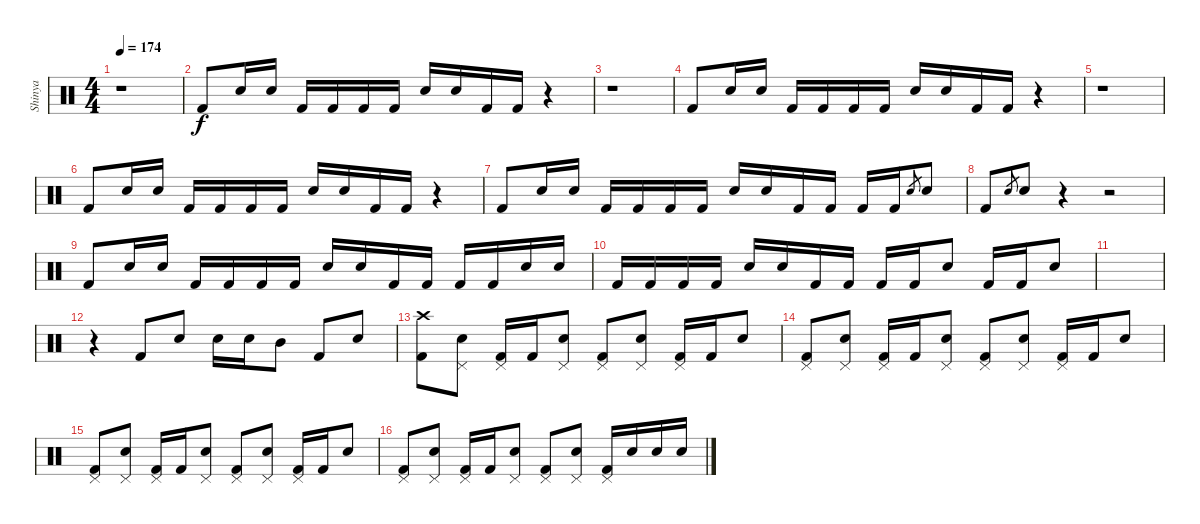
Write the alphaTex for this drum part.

\track ("Shinya" "Shinya") {instrument percussion}
\staff {score}
\articulation defaults
\ts (4 4)
\tempo 174
\clef neutral
\ks c
r.1{dy f} |
"Kick (hit) 2".8 "Electric Snare (hit)".16 "Electric Snare (hit)".16 "Kick (hit) 2".16 "Kick (hit) 2".16 "Kick (hit) 2".16 "Kick (hit) 2".16 "Electric Snare (hit)".16 "Electric Snare (hit)".16 "Kick (hit) 2".16 "Kick (hit) 2".16 r.4 |
r.1 |
"Kick (hit) 2".8 "Electric Snare (hit)".16 "Electric Snare (hit)".16 "Kick (hit) 2".16 "Kick (hit) 2".16 "Kick (hit) 2".16 "Kick (hit) 2".16 "Electric Snare (hit)".16 "Electric Snare (hit)".16 "Kick (hit) 2".16 "Kick (hit) 2".16 r.4 |
r.1 |
"Kick (hit) 2".8 "Electric Snare (hit)".16 "Electric Snare (hit)".16 "Kick (hit) 2".16 "Kick (hit) 2".16 "Kick (hit) 2".16 "Kick (hit) 2".16 "Electric Snare (hit)".16 "Electric Snare (hit)".16 "Kick (hit) 2".16 "Kick (hit) 2".16 r.4 |
"Kick (hit) 2".8 "Electric Snare (hit)".16 "Electric Snare (hit)".16 "Kick (hit) 2".16 "Kick (hit) 2".16 "Kick (hit) 2".16 "Kick (hit) 2".16 "Electric Snare (hit)".16 "Electric Snare (hit)".16 "Kick (hit) 2".16 "Kick (hit) 2".16 "Kick (hit) 2".16 "Kick (hit) 2".16 "Electric Snare (hit)".8{gr} "Electric Snare (hit)".8 |
"Kick (hit) 2".8 "Electric Snare (hit)".8{gr} "Electric Snare (hit)".8 r.4 r.2 |
"Kick (hit) 2".8 "Electric Snare (hit)".16 "Electric Snare (hit)".16 "Kick (hit) 2".16 "Kick (hit) 2".16 "Kick (hit) 2".16 "Kick (hit) 2".16 "Electric Snare (hit)".16 "Electric Snare (hit)".16 "Kick (hit) 2".16 "Kick (hit) 2".16 "Kick (hit) 2".16 "Kick (hit) 2".16 "Electric Snare (hit)".16 "Electric Snare (hit)".16 |
"Kick (hit) 2".16 "Kick (hit) 2".16 "Kick (hit) 2".16 "Kick (hit) 2".16 "Electric Snare (hit)".16 "Electric Snare (hit)".16 "Kick (hit) 2".16 "Kick (hit) 2".16 "Kick (hit) 2".16 "Kick (hit) 2".16 "Electric Snare (hit)".8 "Kick (hit) 2".16 "Kick (hit) 2".16 "Electric Snare (hit)".8 |
|
r.4 "Kick (hit) 2".8 "Electric Snare (hit)".8 "Electric Snare (hit)".16 "Electric Snare (hit)".16 "Mid Tom (hit)".8 "Kick (hit) 2".8 "Electric Snare (hit)".8 |
("Crash high (hit)" "Kick (hit) 2").8 ("Pedal Hi-Hat (hit)" "Electric Snare (hit)").8 ("Pedal Hi-Hat (hit)" "Kick (hit) 2").16 "Kick (hit) 2".16 ("Pedal Hi-Hat (hit)" "Electric Snare (hit)").8 ("Pedal Hi-Hat (hit)" "Kick (hit) 2").8 ("Pedal Hi-Hat (hit)" "Electric Snare (hit)").8 ("Pedal Hi-Hat (hit)" "Kick (hit) 2").16 "Kick (hit) 2".16 "Electric Snare (hit)".8 |
("Pedal Hi-Hat (hit)" "Kick (hit) 2").8 ("Pedal Hi-Hat (hit)" "Electric Snare (hit)").8 ("Pedal Hi-Hat (hit)" "Kick (hit) 2").16 "Kick (hit) 2".16 ("Pedal Hi-Hat (hit)" "Electric Snare (hit)").8 ("Pedal Hi-Hat (hit)" "Kick (hit) 2").8 ("Pedal Hi-Hat (hit)" "Electric Snare (hit)").8 ("Pedal Hi-Hat (hit)" "Kick (hit) 2").16 "Kick (hit) 2".16 "Electric Snare (hit)".8 |
("Pedal Hi-Hat (hit)" "Kick (hit) 2").8 ("Pedal Hi-Hat (hit)" "Electric Snare (hit)").8 ("Pedal Hi-Hat (hit)" "Kick (hit) 2").16 "Kick (hit) 2".16 ("Pedal Hi-Hat (hit)" "Electric Snare (hit)").8 ("Pedal Hi-Hat (hit)" "Kick (hit) 2").8 ("Pedal Hi-Hat (hit)" "Electric Snare (hit)").8 ("Pedal Hi-Hat (hit)" "Kick (hit) 2").16 "Kick (hit) 2".16 "Electric Snare (hit)".8 |
("Pedal Hi-Hat (hit)" "Kick (hit) 2").8 ("Pedal Hi-Hat (hit)" "Electric Snare (hit)").8 ("Pedal Hi-Hat (hit)" "Kick (hit) 2").16 "Kick (hit) 2".16 ("Pedal Hi-Hat (hit)" "Electric Snare (hit)").8 ("Pedal Hi-Hat (hit)" "Kick (hit) 2").8 ("Pedal Hi-Hat (hit)" "Electric Snare (hit)").8 ("Pedal Hi-Hat (hit)" "Kick (hit) 2").16 "Electric Snare (hit)".16 "Electric Snare (hit)".16 "Electric Snare (hit)".16
